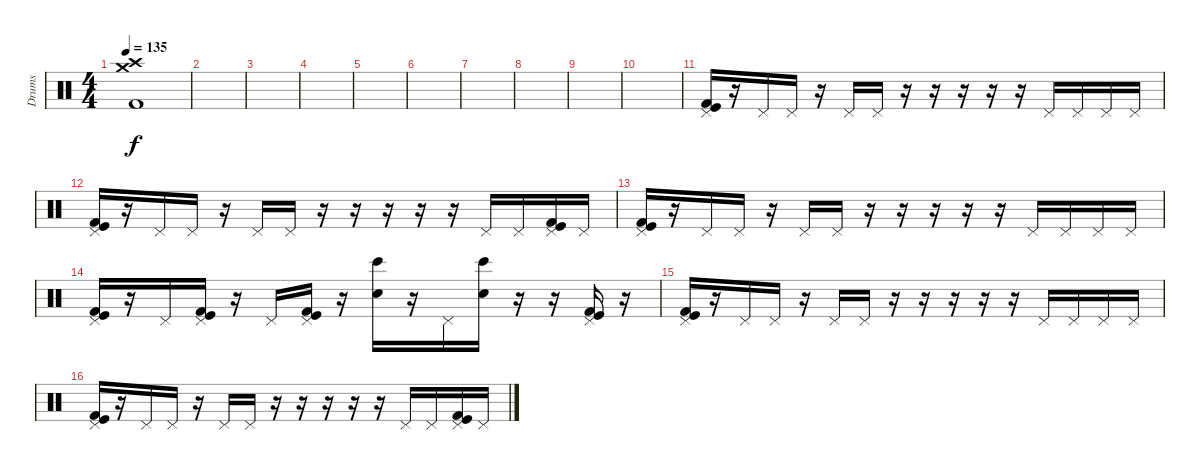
\track ("Drums" "Drums") {instrument percussion}
\staff {score}
\articulation defaults
\ts (4 4)
\tempo 135
\clef neutral
\ks c
("Crash medium (hit)" "Crash high (hit)" "Kick (hit) 2").1{dy f} |
|
|
|
|
|
|
|
|
|
("Pedal Hi-Hat (hit)" "Kick (hit) 2" "Kick (hit)").16 r.16 "Pedal Hi-Hat (hit)".16 "Pedal Hi-Hat (hit)".16 r.16 "Pedal Hi-Hat (hit)".16 "Pedal Hi-Hat (hit)".16 r.16 r.16 r.16 r.16 r.16 "Pedal Hi-Hat (hit)".16 "Pedal Hi-Hat (hit)".16 "Pedal Hi-Hat (hit)".16 "Pedal Hi-Hat (hit)".16 |
("Pedal Hi-Hat (hit)" "Kick (hit) 2" "Kick (hit)").16 r.16 "Pedal Hi-Hat (hit)".16 "Pedal Hi-Hat (hit)".16 r.16 "Pedal Hi-Hat (hit)".16 "Pedal Hi-Hat (hit)".16 r.16 r.16 r.16 r.16 r.16 "Pedal Hi-Hat (hit)".16 "Pedal Hi-Hat (hit)".16 ("Pedal Hi-Hat (hit)" "Kick (hit) 2" "Kick (hit)").16 "Pedal Hi-Hat (hit)".16 |
("Pedal Hi-Hat (hit)" "Kick (hit) 2" "Kick (hit)").16 r.16 "Pedal Hi-Hat (hit)".16 "Pedal Hi-Hat (hit)".16 r.16 "Pedal Hi-Hat (hit)".16 "Pedal Hi-Hat (hit)".16 r.16 r.16 r.16 r.16 r.16 "Pedal Hi-Hat (hit)".16 "Pedal Hi-Hat (hit)".16 "Pedal Hi-Hat (hit)".16 "Pedal Hi-Hat (hit)".16 |
("Pedal Hi-Hat (hit)" "Kick (hit) 2" "Kick (hit)").16 r.16 "Pedal Hi-Hat (hit)".16 ("Pedal Hi-Hat (hit)" "Kick (hit) 2" "Kick (hit)").16 r.16 "Pedal Hi-Hat (hit)".16 ("Pedal Hi-Hat (hit)" "Kick (hit) 2" "Kick (hit)").16 r.16 ("Bongo High (hit)" "Hand Clap (hit)").16 r.16 "Pedal Hi-Hat (hit)".16 ("Bongo High (hit)" "Hand Clap (hit)").16 r.16 r.16 ("Pedal Hi-Hat (hit)" "Kick (hit) 2" "Kick (hit)").16 r.16 |
("Pedal Hi-Hat (hit)" "Kick (hit) 2" "Kick (hit)").16 r.16 "Pedal Hi-Hat (hit)".16 "Pedal Hi-Hat (hit)".16 r.16 "Pedal Hi-Hat (hit)".16 "Pedal Hi-Hat (hit)".16 r.16 r.16 r.16 r.16 r.16 "Pedal Hi-Hat (hit)".16 "Pedal Hi-Hat (hit)".16 "Pedal Hi-Hat (hit)".16 "Pedal Hi-Hat (hit)".16 |
("Pedal Hi-Hat (hit)" "Kick (hit) 2" "Kick (hit)").16 r.16 "Pedal Hi-Hat (hit)".16 "Pedal Hi-Hat (hit)".16 r.16 "Pedal Hi-Hat (hit)".16 "Pedal Hi-Hat (hit)".16 r.16 r.16 r.16 r.16 r.16 "Pedal Hi-Hat (hit)".16 "Pedal Hi-Hat (hit)".16 ("Pedal Hi-Hat (hit)" "Kick (hit) 2" "Kick (hit)").16 "Pedal Hi-Hat (hit)".16
